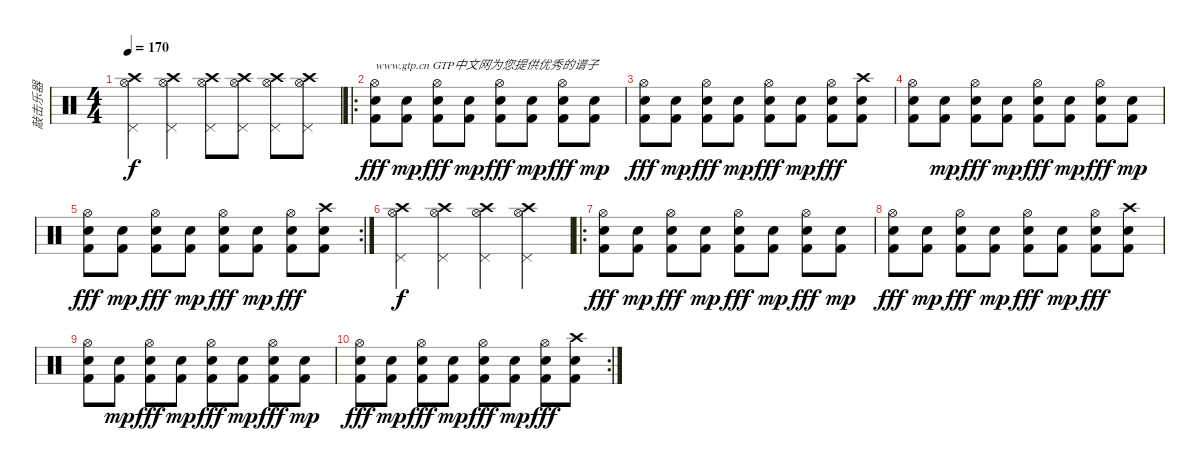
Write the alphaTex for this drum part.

\track ("敲击乐器" "敲击乐器") {instrument percussion}
\staff {score}
\articulation defaults
\ts (4 4)
\tempo 170
\clef neutral
\ks c
("Pedal Hi-Hat (hit)" "Crash high (hit)" "Hi-Hat (open)").4{dy f} ("Pedal Hi-Hat (hit)" "Crash high (hit)" "Hi-Hat (open)").4 ("Pedal Hi-Hat (hit)" "Crash high (hit)" "Hi-Hat (open)").8 ("Pedal Hi-Hat (hit)" "Crash high (hit)" "Hi-Hat (open)").8 ("Pedal Hi-Hat (hit)" "Crash high (hit)" "Hi-Hat (open)").8 ("Pedal Hi-Hat (hit)" "Crash high (hit)" "Hi-Hat (open)").8 |
\ro
("Kick (hit) 2" "Electric Snare (hit)" "Hi-Hat (open)").8{txt "www.gtp.cn GTP中文网为您提供优秀的谱子" dy fff} ("Kick (hit) 2" "Electric Snare (hit)").8{dy mp} ("Kick (hit) 2" "Electric Snare (hit)" "Hi-Hat (open)").8{dy fff} ("Kick (hit) 2" "Electric Snare (hit)").8{dy mp} ("Kick (hit) 2" "Electric Snare (hit)" "Hi-Hat (open)").8{dy fff} ("Kick (hit) 2" "Electric Snare (hit)").8{dy mp} ("Kick (hit) 2" "Electric Snare (hit)" "Hi-Hat (open)").8{dy fff} ("Kick (hit) 2" "Electric Snare (hit)").8{dy mp} |
("Kick (hit) 2" "Electric Snare (hit)" "Hi-Hat (open)").8{dy fff} ("Kick (hit) 2" "Electric Snare (hit)").8{dy mp} ("Kick (hit) 2" "Electric Snare (hit)" "Hi-Hat (open)").8{dy fff} ("Kick (hit) 2" "Electric Snare (hit)").8{dy mp} ("Kick (hit) 2" "Electric Snare (hit)" "Hi-Hat (open)").8{dy fff} ("Kick (hit) 2" "Electric Snare (hit)").8{dy mp} ("Kick (hit) 2" "Electric Snare (hit)" "Hi-Hat (open)").8{dy fff} ("Kick (hit) 2" "Electric Snare (hit)" "Crash high (hit)").8 |
("Kick (hit) 2" "Electric Snare (hit)" "Hi-Hat (open)").8 ("Kick (hit) 2" "Electric Snare (hit)").8{dy mp} ("Kick (hit) 2" "Electric Snare (hit)" "Hi-Hat (open)").8{dy fff} ("Kick (hit) 2" "Electric Snare (hit)").8{dy mp} ("Kick (hit) 2" "Electric Snare (hit)" "Hi-Hat (open)").8{dy fff} ("Kick (hit) 2" "Electric Snare (hit)").8{dy mp} ("Kick (hit) 2" "Electric Snare (hit)" "Hi-Hat (open)").8{dy fff} ("Kick (hit) 2" "Electric Snare (hit)").8{dy mp} |
\rc 2
("Kick (hit) 2" "Electric Snare (hit)" "Hi-Hat (open)").8{dy fff} ("Kick (hit) 2" "Electric Snare (hit)").8{dy mp} ("Kick (hit) 2" "Electric Snare (hit)" "Hi-Hat (open)").8{dy fff} ("Kick (hit) 2" "Electric Snare (hit)").8{dy mp} ("Kick (hit) 2" "Electric Snare (hit)" "Hi-Hat (open)").8{dy fff} ("Kick (hit) 2" "Electric Snare (hit)").8{dy mp} ("Kick (hit) 2" "Electric Snare (hit)" "Hi-Hat (open)").8{dy fff} ("Kick (hit) 2" "Electric Snare (hit)" "Crash high (hit)").8 |
("Pedal Hi-Hat (hit)" "Crash high (hit)" "Hi-Hat (open)").4{dy f} ("Pedal Hi-Hat (hit)" "Crash high (hit)" "Hi-Hat (open)").4 ("Pedal Hi-Hat (hit)" "Crash high (hit)" "Hi-Hat (open)").4 ("Pedal Hi-Hat (hit)" "Crash high (hit)" "Hi-Hat (open)").4 |
\ro
("Kick (hit) 2" "Electric Snare (hit)" "Hi-Hat (open)").8{dy fff} ("Kick (hit) 2" "Electric Snare (hit)").8{dy mp} ("Kick (hit) 2" "Electric Snare (hit)" "Hi-Hat (open)").8{dy fff} ("Kick (hit) 2" "Electric Snare (hit)").8{dy mp} ("Kick (hit) 2" "Electric Snare (hit)" "Hi-Hat (open)").8{dy fff} ("Kick (hit) 2" "Electric Snare (hit)").8{dy mp} ("Kick (hit) 2" "Electric Snare (hit)" "Hi-Hat (open)").8{dy fff} ("Kick (hit) 2" "Electric Snare (hit)").8{dy mp} |
("Kick (hit) 2" "Electric Snare (hit)" "Hi-Hat (open)").8{dy fff} ("Kick (hit) 2" "Electric Snare (hit)").8{dy mp} ("Kick (hit) 2" "Electric Snare (hit)" "Hi-Hat (open)").8{dy fff} ("Kick (hit) 2" "Electric Snare (hit)").8{dy mp} ("Kick (hit) 2" "Electric Snare (hit)" "Hi-Hat (open)").8{dy fff} ("Kick (hit) 2" "Electric Snare (hit)").8{dy mp} ("Kick (hit) 2" "Electric Snare (hit)" "Hi-Hat (open)").8{dy fff} ("Kick (hit) 2" "Electric Snare (hit)" "Crash high (hit)").8 |
("Kick (hit) 2" "Electric Snare (hit)" "Hi-Hat (open)").8 ("Kick (hit) 2" "Electric Snare (hit)").8{dy mp} ("Kick (hit) 2" "Electric Snare (hit)" "Hi-Hat (open)").8{dy fff} ("Kick (hit) 2" "Electric Snare (hit)").8{dy mp} ("Kick (hit) 2" "Electric Snare (hit)" "Hi-Hat (open)").8{dy fff} ("Kick (hit) 2" "Electric Snare (hit)").8{dy mp} ("Kick (hit) 2" "Electric Snare (hit)" "Hi-Hat (open)").8{dy fff} ("Kick (hit) 2" "Electric Snare (hit)").8{dy mp} |
\rc 2
("Kick (hit) 2" "Electric Snare (hit)" "Hi-Hat (open)").8{dy fff} ("Kick (hit) 2" "Electric Snare (hit)").8{dy mp} ("Kick (hit) 2" "Electric Snare (hit)" "Hi-Hat (open)").8{dy fff} ("Kick (hit) 2" "Electric Snare (hit)").8{dy mp} ("Kick (hit) 2" "Electric Snare (hit)" "Hi-Hat (open)").8{dy fff} ("Kick (hit) 2" "Electric Snare (hit)").8{dy mp} ("Kick (hit) 2" "Electric Snare (hit)" "Hi-Hat (open)").8{dy fff} ("Kick (hit) 2" "Electric Snare (hit)" "Crash high (hit)").8
